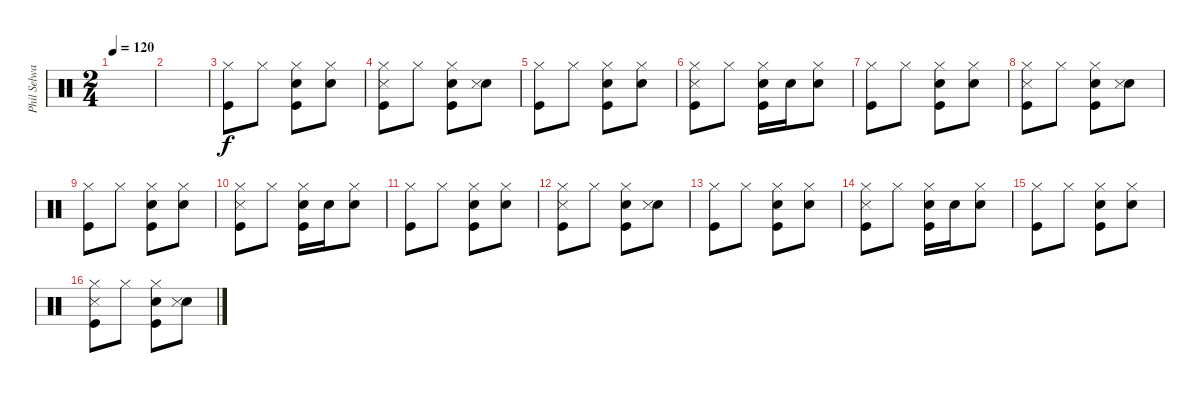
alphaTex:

\track ("Phil Selway (Drums)" "Phil Selwa") {instrument percussion}
\staff {score}
\articulation defaults
\ts (2 4)
\tempo 120
\clef neutral
\ks c
|
|
("Hi-Hat (closed)" "Kick (hit)").8 "Hi-Hat (closed)".8 ("Hi-Hat (closed)" "Electric Snare (hit)" "Kick (hit)").8 ("Hi-Hat (closed)" "Electric Snare (hit)").8 |
("Hi-Hat (closed)" "Snare (side stick) 3" "Kick (hit)").8 "Hi-Hat (closed)".8 ("Hi-Hat (closed)" "Electric Snare (hit)" "Kick (hit)").8 ("Electric Snare (hit)" "Snare (side stick) 3").8 |
("Hi-Hat (closed)" "Kick (hit)").8 "Hi-Hat (closed)".8 ("Hi-Hat (closed)" "Electric Snare (hit)" "Kick (hit)").8 ("Hi-Hat (closed)" "Electric Snare (hit)").8 |
("Hi-Hat (closed)" "Snare (side stick) 3" "Kick (hit)").8 "Hi-Hat (closed)".8 ("Hi-Hat (closed)" "Electric Snare (hit)" "Kick (hit)").16 "Electric Snare (hit)".16 ("Hi-Hat (closed)" "Electric Snare (hit)").8 |
("Hi-Hat (closed)" "Kick (hit)").8 "Hi-Hat (closed)".8 ("Hi-Hat (closed)" "Electric Snare (hit)" "Kick (hit)").8 ("Hi-Hat (closed)" "Electric Snare (hit)").8 |
("Hi-Hat (closed)" "Snare (side stick) 3" "Kick (hit)").8 "Hi-Hat (closed)".8 ("Hi-Hat (closed)" "Electric Snare (hit)" "Kick (hit)").8 ("Electric Snare (hit)" "Snare (side stick) 3").8 |
("Hi-Hat (closed)" "Kick (hit)").8 "Hi-Hat (closed)".8 ("Hi-Hat (closed)" "Electric Snare (hit)" "Kick (hit)").8 ("Hi-Hat (closed)" "Electric Snare (hit)").8 |
("Hi-Hat (closed)" "Snare (side stick) 3" "Kick (hit)").8 "Hi-Hat (closed)".8 ("Hi-Hat (closed)" "Electric Snare (hit)" "Kick (hit)").16 "Electric Snare (hit)".16 ("Hi-Hat (closed)" "Electric Snare (hit)").8 |
("Hi-Hat (closed)" "Kick (hit)").8 "Hi-Hat (closed)".8 ("Hi-Hat (closed)" "Electric Snare (hit)" "Kick (hit)").8 ("Hi-Hat (closed)" "Electric Snare (hit)").8 |
("Hi-Hat (closed)" "Snare (side stick) 3" "Kick (hit)").8 "Hi-Hat (closed)".8 ("Hi-Hat (closed)" "Electric Snare (hit)" "Kick (hit)").8 ("Electric Snare (hit)" "Snare (side stick) 3").8 |
("Hi-Hat (closed)" "Kick (hit)").8 "Hi-Hat (closed)".8 ("Hi-Hat (closed)" "Electric Snare (hit)" "Kick (hit)").8 ("Hi-Hat (closed)" "Electric Snare (hit)").8 |
("Hi-Hat (closed)" "Snare (side stick) 3" "Kick (hit)").8 "Hi-Hat (closed)".8 ("Hi-Hat (closed)" "Electric Snare (hit)" "Kick (hit)").16 "Electric Snare (hit)".16 ("Hi-Hat (closed)" "Electric Snare (hit)").8 |
("Hi-Hat (closed)" "Kick (hit)").8 "Hi-Hat (closed)".8 ("Hi-Hat (closed)" "Electric Snare (hit)" "Kick (hit)").8 ("Hi-Hat (closed)" "Electric Snare (hit)").8 |
("Hi-Hat (closed)" "Snare (side stick) 3" "Kick (hit)").8 "Hi-Hat (closed)".8 ("Hi-Hat (closed)" "Electric Snare (hit)" "Kick (hit)").8 ("Electric Snare (hit)" "Snare (side stick) 3").8
